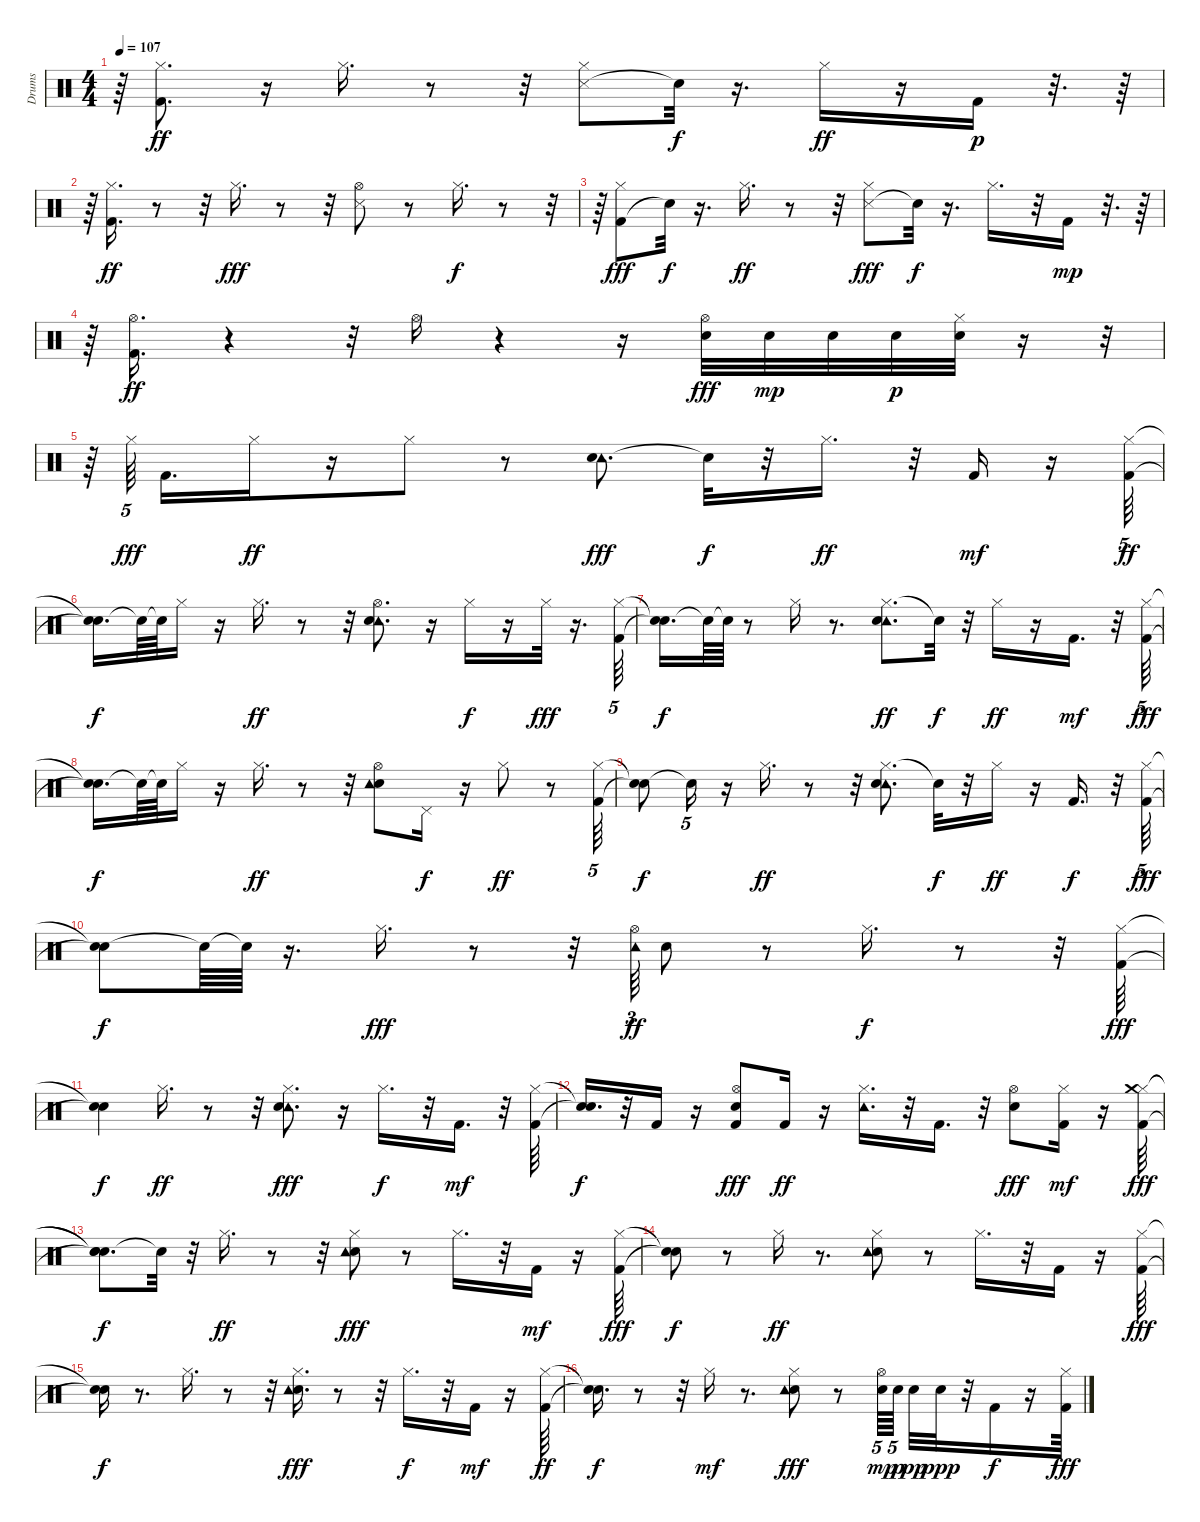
\track ("Drums" "Drums") {instrument percussion}
\staff {score}
\articulation defaults
\ts (4 4)
\tempo 107
\clef neutral
\ks c
r.64{dy ff} ("Kick (hit) 2" "Hi-Hat (closed)").8{d} r.16 "Hi-Hat (closed)".16{d} r.8 r.32 ("Snare (side stick) 3" "Hi-Hat (closed)").8 "Snare (hit)"{t}.32{dy f} r.16{d} "Hi-Hat (closed)".16{dy ff} r.16 "Kick (hit) 2".16{dy p} r.32{d} r.64 |
r.64 ("Kick (hit) 2" "Hi-Hat (closed)").16{d dy ff} r.8 r.32 "Hi-Hat (closed)".16{d dy fff} r.8 r.32 ("Snare (side stick) 3" "Hi-Hat (open)").8 r.8 "Hi-Hat (closed)".16{d dy f} r.8 r.32{tu (5 4)} |
r.64 ("Kick (hit) 2" "Hi-Hat (closed)").8{dy fff} "Snare (hit)"{t}.32{dy f} r.16{d} "Hi-Hat (closed)".16{d dy ff} r.8 r.32 ("Snare (side stick) 3" "Hi-Hat (closed)").8{dy fff} "Snare (hit)"{t}.32{dy f} r.16{d} "Hi-Hat (closed)".16{d} r.32 "Kick (hit) 2".16{dy mp} r.32{d} r.64 |
r.64 ("Kick (hit) 2" "Hi-Hat (open)").16{d dy ff} r.4 r.32 "Hi-Hat (open)".16 r.4 r.16 ("Electric Snare (hit)" "Hi-Hat (open)").32{dy fff} "Electric Snare (hit)".32{dy mp} "Electric Snare (hit)".32 "Electric Snare (hit)".32{dy p} ("Hi-Hat (closed)" "Electric Snare (hit)").32 r.16 r.32{tu (5 4)} |
r.64 "Hi-Hat (closed)".64{tu (5 4) dy fff beam splitsecondary} "Kick (hit) 2".16{d} "Hi-Hat (closed)".16{dy ff} r.16 "Hi-Hat (closed)".8 r.8 ("Tambourine (hit)" "Electric Snare (hit)").8{d dy fff} "Snare (hit)"{t}.32{dy f} r.32 "Hi-Hat (closed)".16{d dy ff} r.32 "Kick (hit) 2".16{dy mf} r.16 ("Hi-Hat (closed)" "Kick (hit) 2").64{tu (5 4) dy ff} |
("Snare (hit)"{t} "Snare (hit)"{t}).16{d dy f} "Snare (hit)"{t}.64 "Snare (hit)"{t}.64 "Hi-Hat (closed)".16 r.16 "Hi-Hat (closed)".16{d dy ff} r.8 r.32 ("Hi-Hat (open)" "Tambourine (hit)" "Electric Snare (hit)").8{d} r.16 "Hi-Hat (closed)".16{dy f} r.16 "Hi-Hat (closed)".32{dy fff} r.16{d} ("Hi-Hat (closed)" "Kick (hit) 2").64{tu (5 4)} |
("Snare (hit)"{t} "Snare (hit)"{t}).16{d dy f} "Snare (hit)"{t}.64 "Snare (hit)"{t}.64 r.8 "Hi-Hat (closed)".16 r.8{d} ("Hi-Hat (closed)" "Tambourine (hit)" "Electric Snare (hit)").8{d dy ff} "Snare (hit)"{t}.32{dy f} r.32 "Hi-Hat (closed)".16{dy ff} r.16 "Kick (hit) 2".16{d dy mf} r.32 ("Hi-Hat (closed)" "Kick (hit) 2").64{tu (5 4) dy fff} |
("Snare (hit)"{t} "Snare (hit)"{t}).16{d dy f} "Snare (hit)"{t}.64 "Snare (hit)"{t}.64 "Hi-Hat (closed)".16 r.16 "Hi-Hat (closed)".16{d dy ff} r.8 r.32 ("Electric Snare (hit)" "Hi-Hat (open)" "Tambourine (hit)").8 "Pedal Hi-Hat (hit)".16{dy f} r.16 "Hi-Hat (closed)".8{dy ff} r.8 ("Hi-Hat (closed)" "Kick (hit) 2").64{tu (5 4)} |
("Snare (hit)"{t} "Snare (hit)"{t}).8{dy f} "Snare (hit)"{t}.16{tu (5 4)} r.16 "Hi-Hat (closed)".16{d dy ff} r.8 r.32 ("Hi-Hat (closed)" "Tambourine (hit)" "Electric Snare (hit)").8{d} "Snare (hit)"{t}.32{dy f} r.32 "Hi-Hat (closed)".16{dy ff} r.16 "Kick (hit) 2".16{d dy f} r.32 ("Hi-Hat (closed)" "Kick (hit) 2").64{tu (5 4) dy fff} |
("Snare (hit)"{t} "Snare (hit)"{t}).8{dy f} "Snare (hit)"{t}.64 "Snare (hit)"{t}.64 r.16{d} "Hi-Hat (closed)".16{d dy fff} r.8 r.32 ("Hi-Hat (open)" "Tambourine (hit)").64{tu (3 2) dy ff} "Electric Snare (hit)".8 r.8 "Hi-Hat (closed)".16{d dy f} r.8 r.32 ("Hi-Hat (closed)" "Kick (hit) 2").64{dy fff} |
("Snare (hit)"{t} "Snare (hit)"{t}).4{dy f} "Hi-Hat (closed)".16{d dy ff} r.8 r.32 ("Hi-Hat (closed)" "Tambourine (hit)" "Electric Snare (hit)").8{d dy fff} r.16 "Hi-Hat (closed)".16{d dy f} r.32 "Kick (hit) 2".16{d dy mf} r.32 ("Hi-Hat (closed)" "Kick (hit) 2").64 |
("Snare (hit)"{t} "Snare (hit)"{t}).16{d dy f} r.32 "Kick (hit) 2".16 r.16 ("Kick (hit) 2" "Hi-Hat (open)" "Electric Snare (hit)").8{dy fff} "Kick (hit) 2".16{dy ff} r.16 ("Tambourine (hit)" "Hi-Hat (closed)").16{d} r.32 "Kick (hit) 2".16{d} r.32 ("Hi-Hat (open)" "Electric Snare (hit)").8{dy fff} ("Hi-Hat (closed)" "Kick (hit) 2").16{dy mf} r.16 ("Hi-Hat (closed)" "Kick (hit) 2" "Crash medium (hit)").64{dy fff} |
("Snare (hit)"{t} "Snare (hit)"{t} "Snare (hit)"{t}).8{d dy f} "Snare (hit)"{t}.32 r.32 "Hi-Hat (closed)".16{d dy ff} r.8 r.32 ("Hi-Hat (closed)" "Electric Snare (hit)" "Tambourine (hit)").8{dy fff} r.8 "Hi-Hat (closed)".16{d} r.32 "Kick (hit) 2".16{dy mf} r.16 ("Hi-Hat (closed)" "Kick (hit) 2").64{dy fff} |
("Snare (hit)"{t} "Snare (hit)"{t}).8{dy f} r.8 "Hi-Hat (closed)".16{dy ff} r.8{d} ("Hi-Hat (closed)" "Electric Snare (hit)" "Tambourine (hit)").8 r.8 "Hi-Hat (closed)".16{d} r.32 "Kick (hit) 2".16 r.16 ("Hi-Hat (closed)" "Kick (hit) 2").64{dy fff} |
("Snare (hit)"{t} "Snare (hit)"{t}).16{dy f} r.8{d} "Hi-Hat (closed)".16{d} r.8 r.32 ("Hi-Hat (closed)" "Electric Snare (hit)" "Tambourine (hit)").16{d dy fff} r.8 r.32 "Hi-Hat (closed)".16{d dy f} r.32 "Kick (hit) 2".16{dy mf} r.16 ("Hi-Hat (closed)" "Kick (hit) 2").64{dy ff} |
("Snare (hit)"{t} "Snare (hit)"{t}).16{d dy f} r.8 r.32 "Hi-Hat (closed)".16{dy mf} r.8{d} ("Hi-Hat (closed)" "Electric Snare (hit)" "Tambourine (hit)").8{dy fff} r.8 ("Hi-Hat (open)" "Electric Snare (hit)").64{tu (5 4) dy mp} "Electric Snare (hit)".64{tu (5 4) dy p beam splitsecondary} "Electric Snare (hit)".32{dy pp} "Electric Snare (hit)".32{dy ppp} r.32 "Kick (hit) 2".16{dy f} r.16 ("Hi-Hat (closed)" "Kick (hit) 2").64{dy fff}
